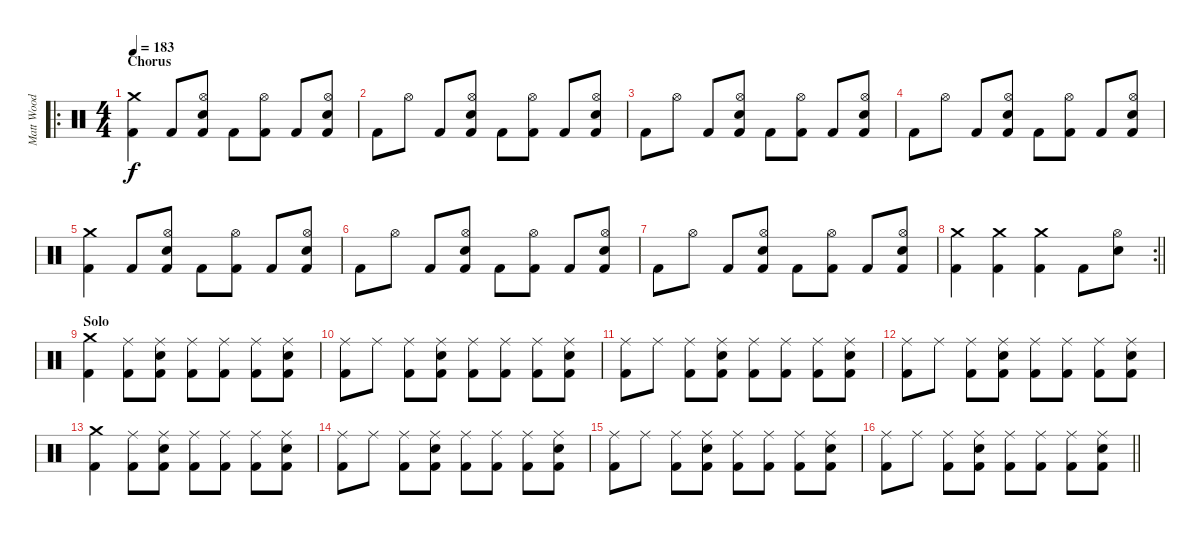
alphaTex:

\track ("Matt Wood" "Matt Wood") {instrument percussion}
\staff {score}
\articulation defaults
\ro
\ts (4 4)
\section ("" "Chorus")
\tempo 183
\clef neutral
\ks c
("Crash medium (hit)" "Kick (hit) 2").4{dy f} "Kick (hit) 2".8 ("Hi-Hat (open)" "Snare (hit) 2" "Kick (hit) 2").8 "Kick (hit) 2".8 ("Hi-Hat (open)" "Kick (hit) 2").8 "Kick (hit) 2".8 ("Hi-Hat (open)" "Snare (hit) 2" "Kick (hit) 2").8 |
"Kick (hit) 2".8 "Hi-Hat (open)".8 "Kick (hit) 2".8 ("Hi-Hat (open)" "Snare (hit) 2" "Kick (hit) 2").8 "Kick (hit) 2".8 ("Hi-Hat (open)" "Kick (hit) 2").8 "Kick (hit) 2".8 ("Hi-Hat (open)" "Snare (hit) 2" "Kick (hit) 2").8 |
"Kick (hit) 2".8 "Hi-Hat (open)".8 "Kick (hit) 2".8 ("Hi-Hat (open)" "Snare (hit) 2" "Kick (hit) 2").8 "Kick (hit) 2".8 ("Hi-Hat (open)" "Kick (hit) 2").8 "Kick (hit) 2".8 ("Hi-Hat (open)" "Snare (hit) 2" "Kick (hit) 2").8 |
"Kick (hit) 2".8 "Hi-Hat (open)".8 "Kick (hit) 2".8 ("Hi-Hat (open)" "Snare (hit) 2" "Kick (hit) 2").8 "Kick (hit) 2".8 ("Hi-Hat (open)" "Kick (hit) 2").8 "Kick (hit) 2".8 ("Hi-Hat (open)" "Snare (hit) 2" "Kick (hit) 2").8 |
("Crash medium (hit)" "Kick (hit) 2").4 "Kick (hit) 2".8 ("Hi-Hat (open)" "Snare (hit) 2" "Kick (hit) 2").8 "Kick (hit) 2".8 ("Hi-Hat (open)" "Kick (hit) 2").8 "Kick (hit) 2".8 ("Hi-Hat (open)" "Snare (hit) 2" "Kick (hit) 2").8 |
"Kick (hit) 2".8 "Hi-Hat (open)".8 "Kick (hit) 2".8 ("Hi-Hat (open)" "Snare (hit) 2" "Kick (hit) 2").8 "Kick (hit) 2".8 ("Hi-Hat (open)" "Kick (hit) 2").8 "Kick (hit) 2".8 ("Hi-Hat (open)" "Snare (hit) 2" "Kick (hit) 2").8 |
"Kick (hit) 2".8 "Hi-Hat (open)".8 "Kick (hit) 2".8 ("Hi-Hat (open)" "Snare (hit) 2" "Kick (hit) 2").8 "Kick (hit) 2".8 ("Hi-Hat (open)" "Kick (hit) 2").8 "Kick (hit) 2".8 ("Hi-Hat (open)" "Snare (hit) 2" "Kick (hit) 2").8 |
\rc 2
\barLineRight lightlight
("Crash medium (hit)" "Kick (hit) 2").4 ("Crash medium (hit)" "Kick (hit) 2").4 ("Crash medium (hit)" "Kick (hit) 2").4 "Kick (hit) 2".8 ("Hi-Hat (open)" "Snare (hit) 2").8 |
\section ("" "Solo")
("Crash medium (hit)" "Kick (hit) 2").4 ("Ride (middle)" "Kick (hit) 2").8 ("Ride (middle)" "Snare (hit) 2" "Kick (hit) 2").8 ("Ride (middle)" "Kick (hit) 2").8 ("Ride (middle)" "Kick (hit) 2").8 ("Ride (middle)" "Kick (hit) 2").8 ("Ride (middle)" "Snare (hit) 2" "Kick (hit) 2").8 |
("Ride (middle)" "Kick (hit) 2").8 "Ride (middle)".8 ("Ride (middle)" "Kick (hit) 2").8 ("Ride (middle)" "Snare (hit) 2" "Kick (hit) 2").8 ("Ride (middle)" "Kick (hit) 2").8 ("Ride (middle)" "Kick (hit) 2").8 ("Ride (middle)" "Kick (hit) 2").8 ("Ride (middle)" "Snare (hit) 2" "Kick (hit) 2").8 |
("Ride (middle)" "Kick (hit) 2").8 "Ride (middle)".8 ("Ride (middle)" "Kick (hit) 2").8 ("Ride (middle)" "Snare (hit) 2" "Kick (hit) 2").8 ("Ride (middle)" "Kick (hit) 2").8 ("Ride (middle)" "Kick (hit) 2").8 ("Ride (middle)" "Kick (hit) 2").8 ("Ride (middle)" "Snare (hit) 2" "Kick (hit) 2").8 |
("Ride (middle)" "Kick (hit) 2").8 "Ride (middle)".8 ("Ride (middle)" "Kick (hit) 2").8 ("Ride (middle)" "Snare (hit) 2" "Kick (hit) 2").8 ("Ride (middle)" "Kick (hit) 2").8 ("Ride (middle)" "Kick (hit) 2").8 ("Ride (middle)" "Kick (hit) 2").8 ("Ride (middle)" "Snare (hit) 2" "Kick (hit) 2").8 |
("Crash medium (hit)" "Kick (hit) 2").4 ("Ride (middle)" "Kick (hit) 2").8 ("Ride (middle)" "Snare (hit) 2" "Kick (hit) 2").8 ("Ride (middle)" "Kick (hit) 2").8 ("Ride (middle)" "Kick (hit) 2").8 ("Ride (middle)" "Kick (hit) 2").8 ("Ride (middle)" "Snare (hit) 2" "Kick (hit) 2").8 |
("Ride (middle)" "Kick (hit) 2").8 "Ride (middle)".8 ("Ride (middle)" "Kick (hit) 2").8 ("Ride (middle)" "Snare (hit) 2" "Kick (hit) 2").8 ("Ride (middle)" "Kick (hit) 2").8 ("Ride (middle)" "Kick (hit) 2").8 ("Ride (middle)" "Kick (hit) 2").8 ("Ride (middle)" "Snare (hit) 2" "Kick (hit) 2").8 |
("Ride (middle)" "Kick (hit) 2").8 "Ride (middle)".8 ("Ride (middle)" "Kick (hit) 2").8 ("Ride (middle)" "Snare (hit) 2" "Kick (hit) 2").8 ("Ride (middle)" "Kick (hit) 2").8 ("Ride (middle)" "Kick (hit) 2").8 ("Ride (middle)" "Kick (hit) 2").8 ("Ride (middle)" "Snare (hit) 2" "Kick (hit) 2").8 |
\barLineRight lightlight
("Ride (middle)" "Kick (hit) 2").8 "Ride (middle)".8 ("Ride (middle)" "Kick (hit) 2").8 ("Ride (middle)" "Snare (hit) 2" "Kick (hit) 2").8 ("Ride (middle)" "Kick (hit) 2").8 ("Ride (middle)" "Kick (hit) 2").8 ("Ride (middle)" "Kick (hit) 2").8 ("Ride (middle)" "Snare (hit) 2" "Kick (hit) 2").8
